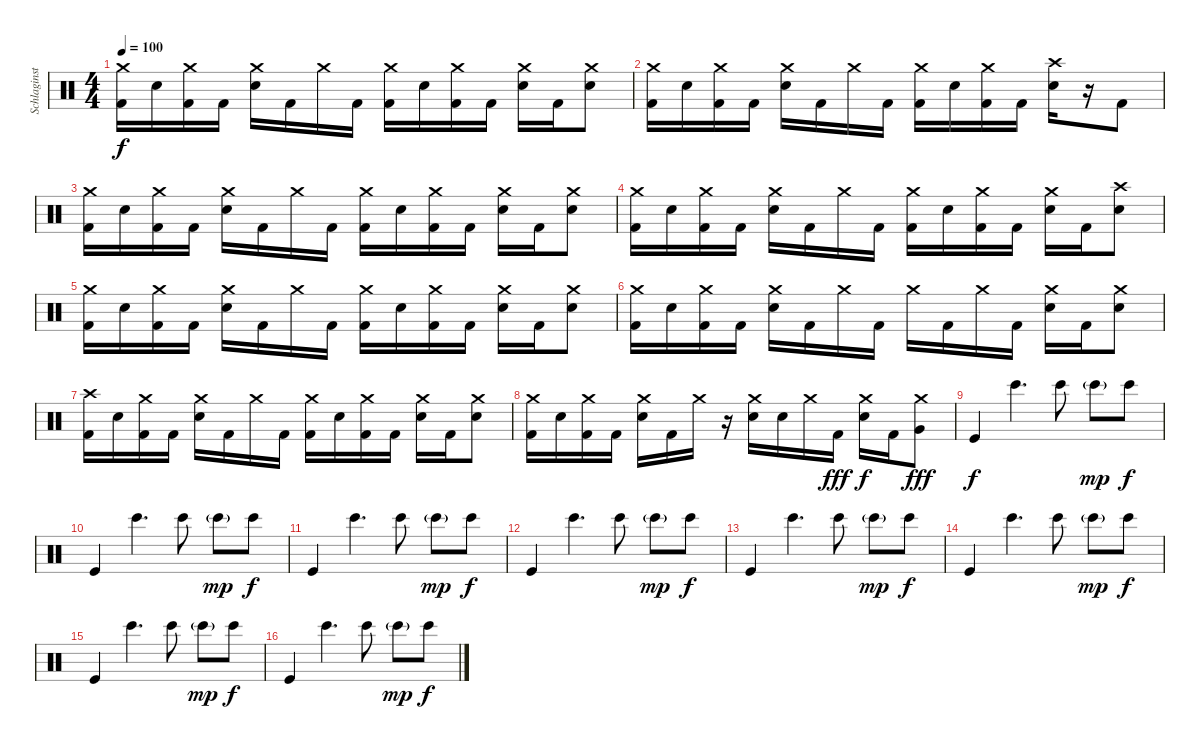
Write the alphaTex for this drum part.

\track ("Schlaginstrumente - Auswahl" "Schlaginst") {instrument percussion}
\staff {score}
\articulation defaults
\ts (4 4)
\tempo 100
\clef neutral
\ks c
("Crash medium (hit)" "Kick (hit) 2").16{dy f} "Snare (hit) 2".16 ("Crash medium (hit)" "Kick (hit) 2").16 "Kick (hit) 2".16 ("Crash medium (hit)" "Snare (hit) 2").16 "Kick (hit) 2".16 "Crash medium (hit)".16 "Kick (hit) 2".16 ("Crash medium (hit)" "Kick (hit) 2").16 "Snare (hit) 2".16 ("Crash medium (hit)" "Kick (hit) 2").16 "Kick (hit) 2".16 ("Crash medium (hit)" "Snare (hit) 2").16 "Kick (hit) 2".16 ("Crash medium (hit)" "Snare (hit) 2").8 |
("Crash medium (hit)" "Kick (hit) 2").16 "Snare (hit) 2".16 ("Crash medium (hit)" "Kick (hit) 2").16 "Kick (hit) 2".16 ("Crash medium (hit)" "Snare (hit) 2").16 "Kick (hit) 2".16 "Crash medium (hit)".16 "Kick (hit) 2".16 ("Crash medium (hit)" "Kick (hit) 2").16 "Snare (hit) 2".16 ("Crash medium (hit)" "Kick (hit) 2").16 "Kick (hit) 2".16 ("Crash high (hit)" "Snare (hit) 2").16 r.16 "Kick (hit) 2".8 |
("Crash medium (hit)" "Kick (hit) 2").16 "Snare (hit) 2".16 ("Crash medium (hit)" "Kick (hit) 2").16 "Kick (hit) 2".16 ("Crash medium (hit)" "Snare (hit) 2").16 "Kick (hit) 2".16 "Crash medium (hit)".16 "Kick (hit) 2".16 ("Crash medium (hit)" "Kick (hit) 2").16 "Snare (hit) 2".16 ("Crash medium (hit)" "Kick (hit) 2").16 "Kick (hit) 2".16 ("Crash medium (hit)" "Snare (hit) 2").16 "Kick (hit) 2".16 ("Crash medium (hit)" "Snare (hit) 2").8 |
("Crash medium (hit)" "Kick (hit) 2").16 "Snare (hit) 2".16 ("Crash medium (hit)" "Kick (hit) 2").16 "Kick (hit) 2".16 ("Crash medium (hit)" "Snare (hit) 2").16 "Kick (hit) 2".16 "Crash medium (hit)".16 "Kick (hit) 2".16 ("Crash medium (hit)" "Kick (hit) 2").16 "Snare (hit) 2".16 ("Crash medium (hit)" "Kick (hit) 2").16 "Kick (hit) 2".16 ("Crash medium (hit)" "Snare (hit) 2").16 "Kick (hit) 2".16 ("Crash high (hit)" "Snare (hit) 2").8 |
("Crash medium (hit)" "Kick (hit) 2").16 "Snare (hit) 2".16 ("Crash medium (hit)" "Kick (hit) 2").16 "Kick (hit) 2".16 ("Crash medium (hit)" "Snare (hit) 2").16 "Kick (hit) 2".16 "Crash medium (hit)".16 "Kick (hit) 2".16 ("Crash medium (hit)" "Kick (hit) 2").16 "Snare (hit) 2".16 ("Crash medium (hit)" "Kick (hit) 2").16 "Kick (hit) 2".16 ("Crash medium (hit)" "Snare (hit) 2").16 "Kick (hit) 2".16 ("Crash medium (hit)" "Snare (hit) 2").8 |
("Crash medium (hit)" "Kick (hit) 2").16 "Snare (hit) 2".16 ("Crash medium (hit)" "Kick (hit) 2").16 "Kick (hit) 2".16 ("Crash medium (hit)" "Snare (hit) 2").16 "Kick (hit) 2".16 "Crash medium (hit)".16 "Kick (hit) 2".16 "Crash medium (hit)".16 "Kick (hit) 2".16 "Crash medium (hit)".16 "Kick (hit) 2".16 ("Crash medium (hit)" "Snare (hit) 2").16 "Kick (hit) 2".16 ("Crash medium (hit)" "Snare (hit) 2").8 |
("Crash high (hit)" "Kick (hit) 2").16 "Snare (hit) 2".16 ("Crash medium (hit)" "Kick (hit) 2").16 "Kick (hit) 2".16 ("Crash medium (hit)" "Snare (hit) 2").16 "Kick (hit) 2".16 "Crash medium (hit)".16 "Kick (hit) 2".16 ("Crash medium (hit)" "Kick (hit) 2").16 "Snare (hit) 2".16 ("Crash medium (hit)" "Kick (hit) 2").16 "Kick (hit) 2".16 ("Crash medium (hit)" "Snare (hit) 2").16 "Kick (hit) 2".16 ("Crash medium (hit)" "Snare (hit) 2").8 |
("Crash medium (hit)" "Kick (hit) 2").16 "Snare (hit) 2".16 ("Crash medium (hit)" "Kick (hit) 2").16 "Kick (hit) 2".16 ("Crash medium (hit)" "Snare (hit) 2").16 "Kick (hit) 2".16 "Crash medium (hit)".16 r.16 ("Crash medium (hit)" "Snare (hit) 2").16 "Snare (hit) 2".16 "Crash medium (hit)".16 "Kick (hit) 2".16{dy fff} ("Crash medium (hit)" "Snare (hit) 2").16{dy f} "Kick (hit) 2".16 ("Crash medium (hit)" "Very Low Tom (hit)").8{dy fff} |
"Kick (hit)".4{dy f} "Bongo High (hit)".4{d} "Bongo High (hit)".8 "Bongo High (hit)"{g}.8{dy mp} "Bongo High (hit)".8{dy f} |
"Kick (hit)".4 "Bongo High (hit)".4{d} "Bongo High (hit)".8 "Bongo High (hit)"{g}.8{dy mp} "Bongo High (hit)".8{dy f} |
"Kick (hit)".4 "Bongo High (hit)".4{d} "Bongo High (hit)".8 "Bongo High (hit)"{g}.8{dy mp} "Bongo High (hit)".8{dy f} |
"Kick (hit)".4 "Bongo High (hit)".4{d} "Bongo High (hit)".8 "Bongo High (hit)"{g}.8{dy mp} "Bongo High (hit)".8{dy f} |
"Kick (hit)".4 "Bongo High (hit)".4{d} "Bongo High (hit)".8 "Bongo High (hit)"{g}.8{dy mp} "Bongo High (hit)".8{dy f} |
"Kick (hit)".4 "Bongo High (hit)".4{d} "Bongo High (hit)".8 "Bongo High (hit)"{g}.8{dy mp} "Bongo High (hit)".8{dy f} |
"Kick (hit)".4 "Bongo High (hit)".4{d} "Bongo High (hit)".8 "Bongo High (hit)"{g}.8{dy mp} "Bongo High (hit)".8{dy f} |
"Kick (hit)".4 "Bongo High (hit)".4{d} "Bongo High (hit)".8 "Bongo High (hit)"{g}.8{dy mp} "Bongo High (hit)".8{dy f}
